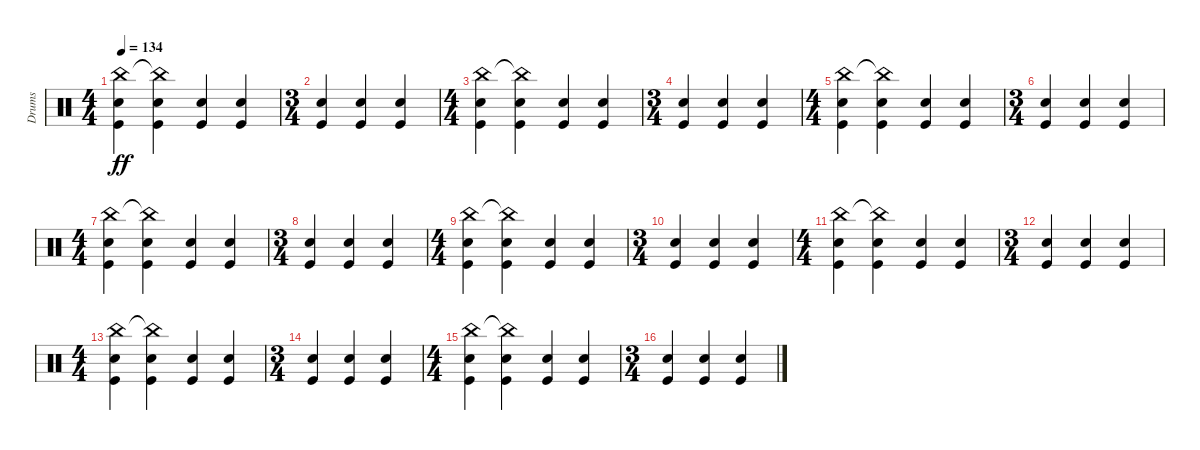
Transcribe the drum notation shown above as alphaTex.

\track ("Drums" "Drums") {instrument percussion}
\staff {score}
\articulation defaults
\ts (4 4)
\tempo 134
\clef neutral
\ks c
("China (hit)" "Snare (hit) 2" "Kick (hit)").4{dy ff} ("China (hit)"{t} "Snare (hit) 2" "Kick (hit)").4 ("Snare (hit) 2" "Kick (hit)").4 ("Snare (hit) 2" "Kick (hit)").4 |
\ts (3 4)
("Snare (hit) 2" "Kick (hit)").4 ("Snare (hit) 2" "Kick (hit)").4 ("Snare (hit) 2" "Kick (hit)").4 |
\ts (4 4)
("China (hit)" "Snare (hit) 2" "Kick (hit)").4 ("China (hit)"{t} "Snare (hit) 2" "Kick (hit)").4 ("Snare (hit) 2" "Kick (hit)").4 ("Snare (hit) 2" "Kick (hit)").4 |
\ts (3 4)
("Snare (hit) 2" "Kick (hit)").4 ("Snare (hit) 2" "Kick (hit)").4 ("Snare (hit) 2" "Kick (hit)").4 |
\ts (4 4)
("China (hit)" "Snare (hit) 2" "Kick (hit)").4 ("China (hit)"{t} "Snare (hit) 2" "Kick (hit)").4 ("Snare (hit) 2" "Kick (hit)").4 ("Snare (hit) 2" "Kick (hit)").4 |
\ts (3 4)
("Snare (hit) 2" "Kick (hit)").4 ("Snare (hit) 2" "Kick (hit)").4 ("Snare (hit) 2" "Kick (hit)").4 |
\ts (4 4)
("China (hit)" "Snare (hit) 2" "Kick (hit)").4{volume 6} ("China (hit)"{t} "Snare (hit) 2" "Kick (hit)").4 ("Snare (hit) 2" "Kick (hit)").4 ("Snare (hit) 2" "Kick (hit)").4 |
\ts (3 4)
("Snare (hit) 2" "Kick (hit)").4 ("Snare (hit) 2" "Kick (hit)").4 ("Snare (hit) 2" "Kick (hit)").4 |
\ts (4 4)
("China (hit)" "Snare (hit) 2" "Kick (hit)").4 ("China (hit)"{t} "Snare (hit) 2" "Kick (hit)").4 ("Snare (hit) 2" "Kick (hit)").4 ("Snare (hit) 2" "Kick (hit)").4 |
\ts (3 4)
("Snare (hit) 2" "Kick (hit)").4 ("Snare (hit) 2" "Kick (hit)").4 ("Snare (hit) 2" "Kick (hit)").4 |
\ts (4 4)
("China (hit)" "Snare (hit) 2" "Kick (hit)").4{volume 3} ("China (hit)"{t} "Snare (hit) 2" "Kick (hit)").4 ("Snare (hit) 2" "Kick (hit)").4 ("Snare (hit) 2" "Kick (hit)").4 |
\ts (3 4)
("Snare (hit) 2" "Kick (hit)").4 ("Snare (hit) 2" "Kick (hit)").4 ("Snare (hit) 2" "Kick (hit)").4 |
\ts (4 4)
("China (hit)" "Snare (hit) 2" "Kick (hit)").4 ("China (hit)"{t} "Snare (hit) 2" "Kick (hit)").4 ("Snare (hit) 2" "Kick (hit)").4 ("Snare (hit) 2" "Kick (hit)").4 |
\ts (3 4)
("Snare (hit) 2" "Kick (hit)").4 ("Snare (hit) 2" "Kick (hit)").4 ("Snare (hit) 2" "Kick (hit)").4 |
\ts (4 4)
("China (hit)" "Snare (hit) 2" "Kick (hit)").4 ("China (hit)"{t} "Snare (hit) 2" "Kick (hit)").4 ("Snare (hit) 2" "Kick (hit)").4 ("Snare (hit) 2" "Kick (hit)").4 |
\ts (3 4)
("Snare (hit) 2" "Kick (hit)").4 ("Snare (hit) 2" "Kick (hit)").4 ("Snare (hit) 2" "Kick (hit)").4
